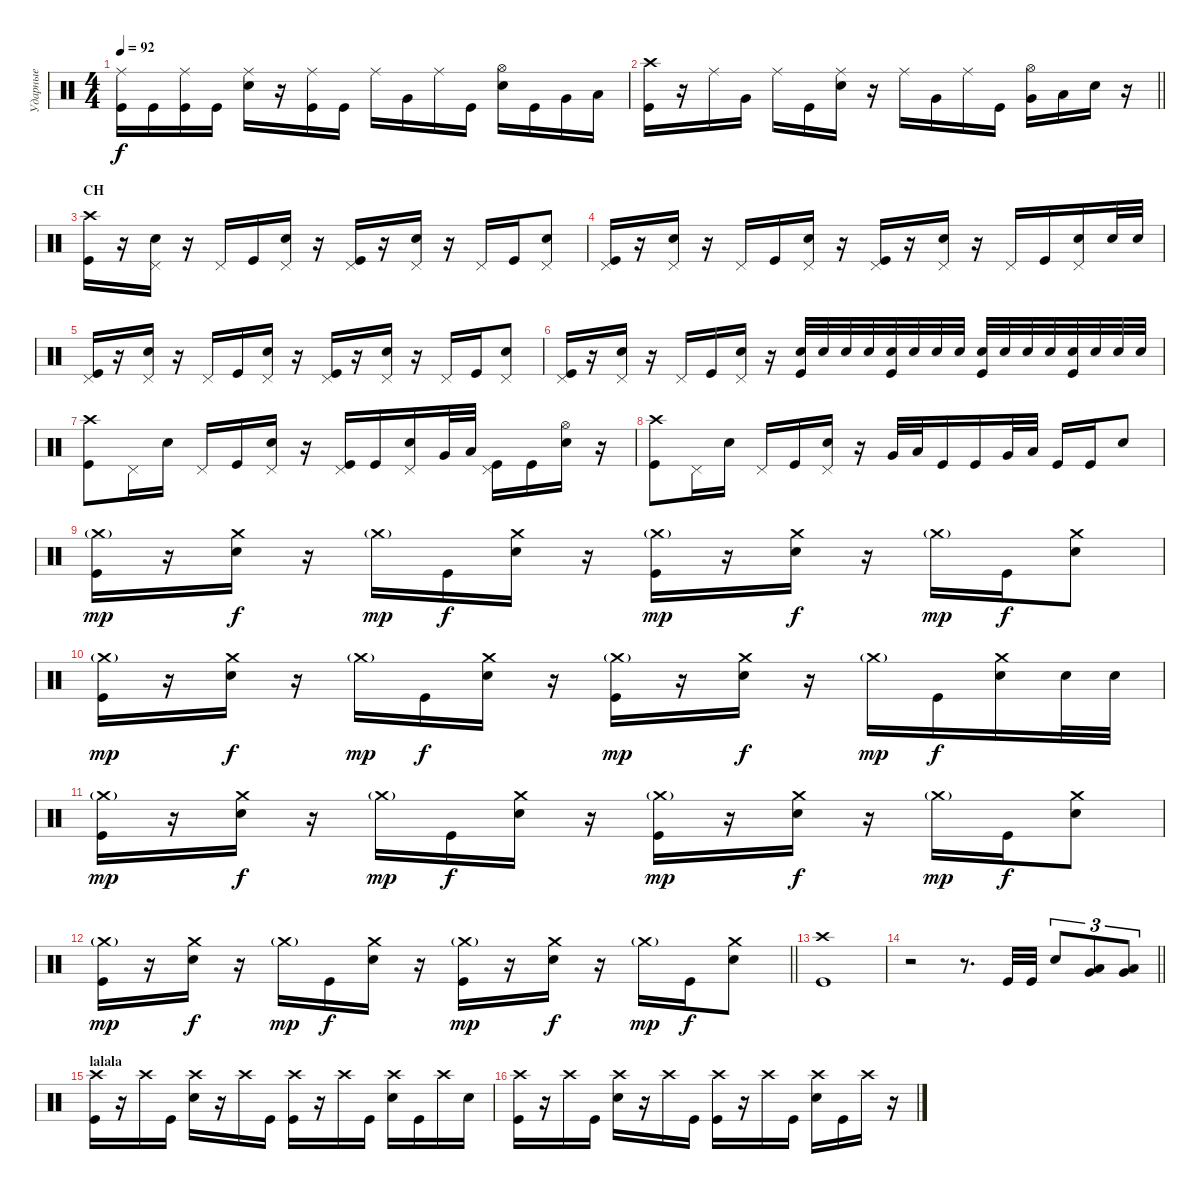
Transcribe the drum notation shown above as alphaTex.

\track ("Ударные" "Ударные") {instrument percussion}
\staff {score}
\articulation defaults
\ts (4 4)
\tempo 92
\clef neutral
\ks c
("Kick (hit)" "Ride (middle)").16{dy f} "Kick (hit)".16 ("Kick (hit)" "Ride (middle)").16 "Kick (hit)".16 ("Snare (hit) 2" "Ride (middle)").16 r.16 ("Kick (hit)" "Ride (middle)").16 "Kick (hit)".16 "Ride (middle)".16 "Very Low Tom (hit)".16 "Ride (middle)".16 "Kick (hit)".16 ("Snare (hit) 2" "Hi-Hat (open)").16 "Kick (hit)".16 "Very Low Tom (hit)".16 "Low Floor Tom (hit)".16 |
\barLineRight lightlight
("Kick (hit)" "Crash high (hit)").16 r.16 "Ride (middle)".16 "Very Low Tom (hit)".16 "Ride (middle)".16 "Kick (hit)".16 ("Snare (hit) 2" "Ride (middle)").16 r.16 "Ride (middle)".16 "Very Low Tom (hit)".16 "Ride (middle)".16 "Kick (hit)".16 ("Very Low Tom (hit)" "Hi-Hat (open)").16 "Low Floor Tom (hit)".16 "Snare (hit) 2".16 r.16 |
\section ("" "CH")
("Kick (hit)" "Crash high (hit)").16 r.16 ("Snare (hit) 2" "Pedal Hi-Hat (hit)").16 r.16 "Pedal Hi-Hat (hit)".16 "Kick (hit)".16 ("Snare (hit) 2" "Pedal Hi-Hat (hit)").16 r.16 ("Kick (hit)" "Pedal Hi-Hat (hit)").16 r.16 ("Snare (hit) 2" "Pedal Hi-Hat (hit)").16 r.16 "Pedal Hi-Hat (hit)".16 "Kick (hit)".16 ("Snare (hit) 2" "Pedal Hi-Hat (hit)").8 |
("Kick (hit)" "Pedal Hi-Hat (hit)").16 r.16 ("Snare (hit) 2" "Pedal Hi-Hat (hit)").16 r.16 "Pedal Hi-Hat (hit)".16 "Kick (hit)".16 ("Snare (hit) 2" "Pedal Hi-Hat (hit)").16 r.16 ("Kick (hit)" "Pedal Hi-Hat (hit)").16 r.16 ("Snare (hit) 2" "Pedal Hi-Hat (hit)").16 r.16 "Pedal Hi-Hat (hit)".16 "Kick (hit)".16 ("Snare (hit) 2" "Pedal Hi-Hat (hit)").16 "Snare (hit) 2".32 "Snare (hit) 2".32 |
("Kick (hit)" "Pedal Hi-Hat (hit)").16 r.16 ("Snare (hit) 2" "Pedal Hi-Hat (hit)").16 r.16 "Pedal Hi-Hat (hit)".16 "Kick (hit)".16 ("Snare (hit) 2" "Pedal Hi-Hat (hit)").16 r.16 ("Kick (hit)" "Pedal Hi-Hat (hit)").16 r.16 ("Snare (hit) 2" "Pedal Hi-Hat (hit)").16 r.16 "Pedal Hi-Hat (hit)".16 "Kick (hit)".16 ("Snare (hit) 2" "Pedal Hi-Hat (hit)").8 |
("Kick (hit)" "Pedal Hi-Hat (hit)").16 r.16 ("Snare (hit) 2" "Pedal Hi-Hat (hit)").16 r.16 "Pedal Hi-Hat (hit)".16 "Kick (hit)".16 ("Snare (hit) 2" "Pedal Hi-Hat (hit)").16 r.16 ("Snare (hit) 2" "Kick (hit)").32 "Snare (hit) 2".32 "Snare (hit) 2".32 "Snare (hit) 2".32 ("Snare (hit) 2" "Kick (hit)").32 "Snare (hit) 2".32 "Snare (hit) 2".32 "Snare (hit) 2".32 ("Snare (hit) 2" "Kick (hit)").32 "Snare (hit) 2".32 "Snare (hit) 2".32 "Snare (hit) 2".32 ("Snare (hit) 2" "Kick (hit)").32 "Snare (hit) 2".32 "Snare (hit) 2".32 "Snare (hit) 2".32 |
("Kick (hit)" "Crash high (hit)").8 "Pedal Hi-Hat (hit)".16 "Snare (hit) 2".16 "Pedal Hi-Hat (hit)".16 "Kick (hit)".16 ("Snare (hit) 2" "Pedal Hi-Hat (hit)").16 r.16 ("Kick (hit)" "Pedal Hi-Hat (hit)").16 "Kick (hit)".16 ("Snare (hit) 2" "Pedal Hi-Hat (hit)").16 "Very Low Tom (hit)".32 "Low Floor Tom (hit)".32 ("Kick (hit)" "Pedal Hi-Hat (hit)").16 "Kick (hit)".16 ("Snare (hit) 2" "Hi-Hat (open)").16 r.16 |
("Kick (hit)" "Crash high (hit)").8 "Pedal Hi-Hat (hit)".16 "Snare (hit) 2".16 "Pedal Hi-Hat (hit)".16 "Kick (hit)".16 ("Snare (hit) 2" "Pedal Hi-Hat (hit)").16 r.16 "Very Low Tom (hit)".32 "Low Floor Tom (hit)".32 "Kick (hit)".16 "Kick (hit)".16 "Very Low Tom (hit)".32 "Low Floor Tom (hit)".32 "Kick (hit)".16 "Kick (hit)".16 "Snare (hit) 2".8 |
("Kick (hit)" "Crash medium (hit)"{g}).16{dy mp} r.16 ("Snare (hit) 2" "Crash medium (hit)").16{dy f} r.16 "Crash medium (hit)"{g}.16{dy mp} "Kick (hit)".16{dy f} ("Snare (hit) 2" "Crash medium (hit)").16 r.16 ("Kick (hit)" "Crash medium (hit)"{g}).16{dy mp} r.16 ("Snare (hit) 2" "Crash medium (hit)").16{dy f} r.16 "Crash medium (hit)"{g}.16{dy mp} "Kick (hit)".16{dy f} ("Snare (hit) 2" "Crash medium (hit)").8 |
("Kick (hit)" "Crash medium (hit)"{g}).16{dy mp} r.16 ("Snare (hit) 2" "Crash medium (hit)").16{dy f} r.16 "Crash medium (hit)"{g}.16{dy mp} "Kick (hit)".16{dy f} ("Snare (hit) 2" "Crash medium (hit)").16 r.16 ("Kick (hit)" "Crash medium (hit)"{g}).16{dy mp} r.16 ("Snare (hit) 2" "Crash medium (hit)").16{dy f} r.16 "Crash medium (hit)"{g}.16{dy mp} "Kick (hit)".16{dy f} ("Snare (hit) 2" "Crash medium (hit)").16 "Snare (hit) 2".32 "Snare (hit) 2".32 |
("Kick (hit)" "Crash medium (hit)"{g}).16{dy mp} r.16 ("Snare (hit) 2" "Crash medium (hit)").16{dy f} r.16 "Crash medium (hit)"{g}.16{dy mp} "Kick (hit)".16{dy f} ("Snare (hit) 2" "Crash medium (hit)").16 r.16 ("Kick (hit)" "Crash medium (hit)"{g}).16{dy mp} r.16 ("Snare (hit) 2" "Crash medium (hit)").16{dy f} r.16 "Crash medium (hit)"{g}.16{dy mp} "Kick (hit)".16{dy f} ("Snare (hit) 2" "Crash medium (hit)").8 |
\barLineRight lightlight
("Kick (hit)" "Crash medium (hit)"{g}).16{dy mp} r.16 ("Snare (hit) 2" "Crash medium (hit)").16{dy f} r.16 "Crash medium (hit)"{g}.16{dy mp} "Kick (hit)".16{dy f} ("Snare (hit) 2" "Crash medium (hit)").16 r.16 ("Kick (hit)" "Crash medium (hit)"{g}).16{dy mp} r.16 ("Snare (hit) 2" "Crash medium (hit)").16{dy f} r.16 "Crash medium (hit)"{g}.16{dy mp} "Kick (hit)".16{dy f} ("Snare (hit) 2" "Crash medium (hit)").8 |
("Kick (hit)" "Crash high (hit)").1 |
\barLineRight lightlight
r.2 r.8{d} "Kick (hit)".32 "Kick (hit)".32 "Snare (hit) 2".8{tu (3 2)} ("Very Low Tom (hit)" "Low Floor Tom (hit)").8{tu (3 2)} ("Very Low Tom (hit)" "Low Floor Tom (hit)").8{tu (3 2)} |
\section ("" "lalala")
("Kick (hit)" "Crash high (hit)").16 r.16 "Crash high (hit)".16 "Kick (hit)".16 ("Snare (hit) 2" "Crash high (hit)").16 r.16 "Crash high (hit)".16 "Kick (hit)".16 ("Kick (hit)" "Crash high (hit)").16 r.16 "Crash high (hit)".16 "Kick (hit)".16 ("Snare (hit) 2" "Crash high (hit)").16 "Kick (hit)".16 "Crash high (hit)".16 "Snare (hit) 2".16 |
("Kick (hit)" "Crash high (hit)").16 r.16 "Crash high (hit)".16 "Kick (hit)".16 ("Snare (hit) 2" "Crash high (hit)").16 r.16 "Crash high (hit)".16 "Kick (hit)".16 ("Kick (hit)" "Crash high (hit)").16 r.16 "Crash high (hit)".16 "Kick (hit)".16 ("Snare (hit) 2" "Crash high (hit)").16 "Kick (hit)".16 "Crash high (hit)".16 r.16
